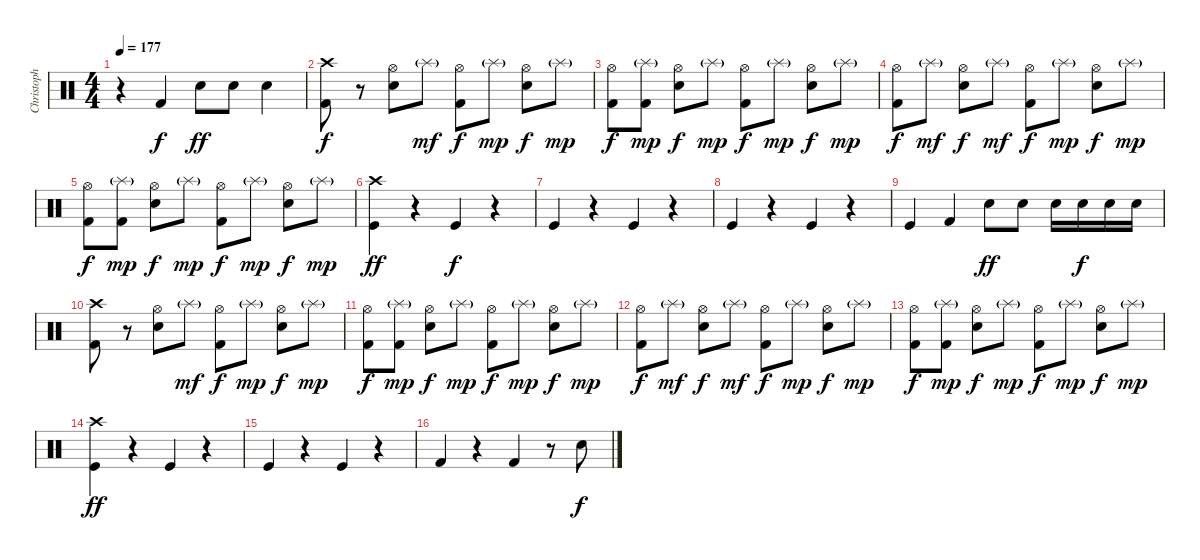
\track ("Christoph Schneider [drums]" "Christoph ") {instrument percussion}
\staff {score}
\articulation defaults
\ts (4 4)
\tempo 177
\clef neutral
\ks c
r.4{dy ff} "Kick (hit) 2".4{dy f} "Snare (hit) 2".8{dy ff} "Snare (hit) 2".8 "Snare (hit) 2".4 |
("Crash high (hit)" "Kick (hit) 2").8{dy f} r.8 ("Hi-Hat (open)" "Snare (hit) 2").8 "Splash (hit)"{g}.8{dy mf} ("Hi-Hat (open)" "Kick (hit) 2").8{dy f} "Splash (hit)"{g}.8{dy mp} ("Hi-Hat (open)" "Snare (hit) 2").8{dy f} "Splash (hit)"{g}.8{dy mp} |
("Hi-Hat (open)" "Kick (hit) 2").8{dy f} ("Splash (hit)"{g} "Kick (hit) 2").8{dy mp} ("Hi-Hat (open)" "Snare (hit) 2").8{dy f} "Splash (hit)"{g}.8{dy mp} ("Hi-Hat (open)" "Kick (hit) 2").8{dy f} "Splash (hit)"{g}.8{dy mp} ("Hi-Hat (open)" "Snare (hit) 2").8{dy f} "Splash (hit)"{g}.8{dy mp} |
("Hi-Hat (open)" "Kick (hit) 2").8{dy f} "Splash (hit)"{g}.8{dy mf} ("Hi-Hat (open)" "Snare (hit) 2").8{dy f} "Splash (hit)"{g}.8{dy mf} ("Hi-Hat (open)" "Kick (hit) 2").8{dy f} "Splash (hit)"{g}.8{dy mp} ("Hi-Hat (open)" "Snare (hit) 2").8{dy f} "Splash (hit)"{g}.8{dy mp} |
("Hi-Hat (open)" "Kick (hit) 2").8{dy f} ("Splash (hit)"{g} "Kick (hit) 2").8{dy mp} ("Hi-Hat (open)" "Snare (hit) 2").8{dy f} "Splash (hit)"{g}.8{dy mp} ("Hi-Hat (open)" "Kick (hit) 2").8{dy f} "Splash (hit)"{g}.8{dy mp} ("Hi-Hat (open)" "Snare (hit) 2").8{dy f} "Splash (hit)"{g}.8{dy mp} |
("Crash high (hit)" "Kick (hit)").4{dy ff} r.4 "Kick (hit)".4{dy f} r.4 |
"Kick (hit)".4 r.4 "Kick (hit)".4 r.4 |
"Kick (hit)".4 r.4 "Kick (hit)".4 r.4 |
"Kick (hit)".4 "Kick (hit) 2".4 "Snare (hit) 2".8{dy ff} "Snare (hit) 2".8 "Snare (hit) 2".16 "Snare (hit) 2".16{dy f} "Snare (hit) 2".16 "Snare (hit) 2".16 |
("Crash high (hit)" "Kick (hit) 2").8 r.8 ("Hi-Hat (open)" "Snare (hit) 2").8 "Splash (hit)"{g}.8{dy mf} ("Hi-Hat (open)" "Kick (hit) 2").8{dy f} "Splash (hit)"{g}.8{dy mp} ("Hi-Hat (open)" "Snare (hit) 2").8{dy f} "Splash (hit)"{g}.8{dy mp} |
("Hi-Hat (open)" "Kick (hit) 2").8{dy f} ("Splash (hit)"{g} "Kick (hit) 2").8{dy mp} ("Hi-Hat (open)" "Snare (hit) 2").8{dy f} "Splash (hit)"{g}.8{dy mp} ("Hi-Hat (open)" "Kick (hit) 2").8{dy f} "Splash (hit)"{g}.8{dy mp} ("Hi-Hat (open)" "Snare (hit) 2").8{dy f} "Splash (hit)"{g}.8{dy mp} |
("Hi-Hat (open)" "Kick (hit) 2").8{dy f} "Splash (hit)"{g}.8{dy mf} ("Hi-Hat (open)" "Snare (hit) 2").8{dy f} "Splash (hit)"{g}.8{dy mf} ("Hi-Hat (open)" "Kick (hit) 2").8{dy f} "Splash (hit)"{g}.8{dy mp} ("Hi-Hat (open)" "Snare (hit) 2").8{dy f} "Splash (hit)"{g}.8{dy mp} |
("Hi-Hat (open)" "Kick (hit) 2").8{dy f} ("Splash (hit)"{g} "Kick (hit) 2").8{dy mp} ("Hi-Hat (open)" "Snare (hit) 2").8{dy f} "Splash (hit)"{g}.8{dy mp} ("Hi-Hat (open)" "Kick (hit) 2").8{dy f} "Splash (hit)"{g}.8{dy mp} ("Hi-Hat (open)" "Snare (hit) 2").8{dy f} "Splash (hit)"{g}.8{dy mp} |
("Crash high (hit)" "Kick (hit)").4{dy ff} r.4 "Kick (hit)".4 r.4 |
"Kick (hit)".4 r.4 "Kick (hit)".4 r.4 |
"Kick (hit) 2".4 r.4 "Kick (hit) 2".4 r.8 "Snare (hit) 2".8{dy f}
